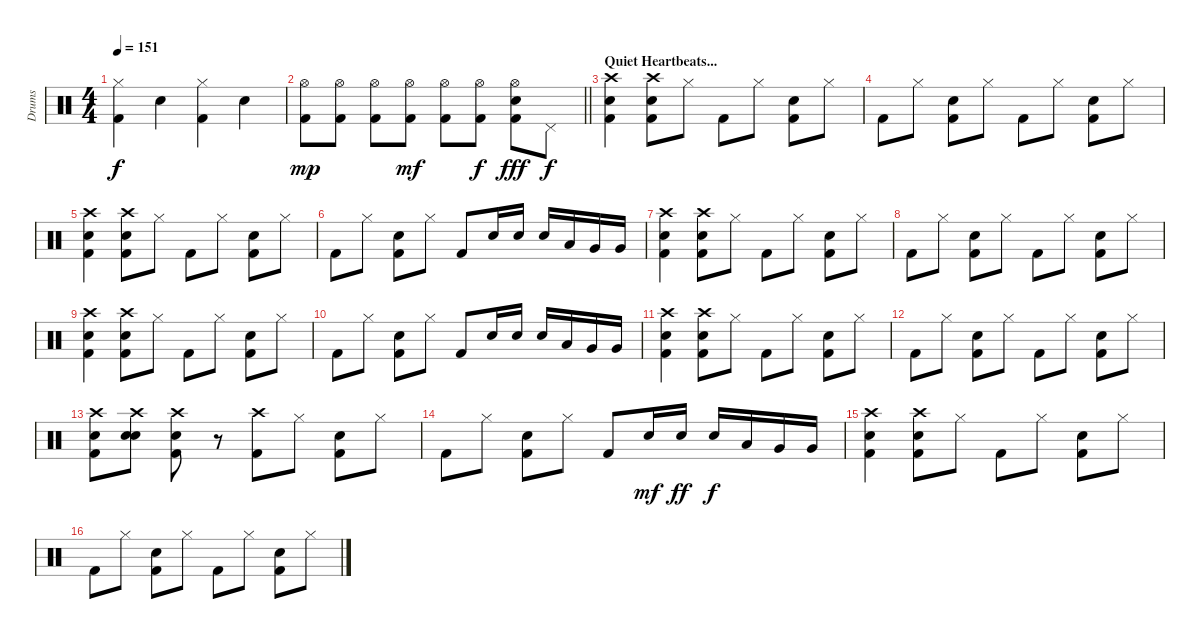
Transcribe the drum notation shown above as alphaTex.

\track ("Drums" "Drums") {instrument percussion}
\staff {score}
\articulation defaults
\ts (4 4)
\tempo 151
\clef neutral
\ks c
("Hi-Hat (closed)" "Kick (hit) 2").4{dy f} "Electric Snare (hit)".4 ("Hi-Hat (closed)" "Kick (hit) 2").4 "Electric Snare (hit)".4 |
\barLineRight lightlight
("Hi-Hat (open)" "Kick (hit) 2").8{dy mp} ("Hi-Hat (open)" "Kick (hit) 2").8 ("Hi-Hat (open)" "Kick (hit) 2").8 ("Hi-Hat (open)" "Kick (hit) 2").8{dy mf} ("Hi-Hat (open)" "Kick (hit) 2").8 ("Hi-Hat (open)" "Kick (hit) 2").8{dy f} ("Hi-Hat (open)" "Electric Snare (hit)" "Kick (hit) 2").8{dy fff} "Pedal Hi-Hat (hit)".8{dy f} |
\section ("" "Quiet Heartbeats...")
("Crash high (hit)" "Electric Snare (hit)" "Kick (hit) 2").4 ("Crash high (hit)" "Electric Snare (hit)" "Kick (hit) 2").8 "Hi-Hat (closed)".8 "Kick (hit) 2".8 "Hi-Hat (closed)".8 ("Electric Snare (hit)" "Kick (hit) 2").8 "Hi-Hat (closed)".8 |
"Kick (hit) 2".8 "Hi-Hat (closed)".8 ("Electric Snare (hit)" "Kick (hit) 2").8 "Hi-Hat (closed)".8 "Kick (hit) 2".8 "Hi-Hat (closed)".8 ("Electric Snare (hit)" "Kick (hit) 2").8 "Hi-Hat (closed)".8 |
("Crash high (hit)" "Electric Snare (hit)" "Kick (hit) 2").4 ("Crash high (hit)" "Electric Snare (hit)" "Kick (hit) 2").8 "Hi-Hat (closed)".8 "Kick (hit) 2".8 "Hi-Hat (closed)".8 ("Electric Snare (hit)" "Kick (hit) 2").8 "Hi-Hat (closed)".8 |
"Kick (hit) 2".8 "Hi-Hat (closed)".8 ("Electric Snare (hit)" "Kick (hit) 2").8 "Hi-Hat (closed)".8 "Kick (hit) 2".8 "Electric Snare (hit)".16 "Electric Snare (hit)".16 "Electric Snare (hit)".16 "Low Tom (hit)".16 "Very Low Tom (hit)".16 "Very Low Tom (hit)".16 |
("Crash high (hit)" "Electric Snare (hit)" "Kick (hit) 2").4 ("Crash high (hit)" "Electric Snare (hit)" "Kick (hit) 2").8 "Hi-Hat (closed)".8 "Kick (hit) 2".8 "Hi-Hat (closed)".8 ("Electric Snare (hit)" "Kick (hit) 2").8 "Hi-Hat (closed)".8 |
"Kick (hit) 2".8 "Hi-Hat (closed)".8 ("Electric Snare (hit)" "Kick (hit) 2").8 "Hi-Hat (closed)".8 "Kick (hit) 2".8 "Hi-Hat (closed)".8 ("Electric Snare (hit)" "Kick (hit) 2").8 "Hi-Hat (closed)".8 |
("Crash high (hit)" "Electric Snare (hit)" "Kick (hit) 2").4 ("Crash high (hit)" "Electric Snare (hit)" "Kick (hit) 2").8 "Hi-Hat (closed)".8 "Kick (hit) 2".8 "Hi-Hat (closed)".8 ("Electric Snare (hit)" "Kick (hit) 2").8 "Hi-Hat (closed)".8 |
"Kick (hit) 2".8 "Hi-Hat (closed)".8 ("Electric Snare (hit)" "Kick (hit) 2").8 "Hi-Hat (closed)".8 "Kick (hit) 2".8 "Electric Snare (hit)".16 "Electric Snare (hit)".16 "Electric Snare (hit)".16 "Low Tom (hit)".16 "Very Low Tom (hit)".16 "Very Low Tom (hit)".16 |
("Crash high (hit)" "Electric Snare (hit)" "Kick (hit) 2").4 ("Crash high (hit)" "Electric Snare (hit)" "Kick (hit) 2").8 "Hi-Hat (closed)".8 "Kick (hit) 2".8 "Hi-Hat (closed)".8 ("Electric Snare (hit)" "Kick (hit) 2").8 "Hi-Hat (closed)".8 |
"Kick (hit) 2".8 "Hi-Hat (closed)".8 ("Electric Snare (hit)" "Kick (hit) 2").8 "Hi-Hat (closed)".8 "Kick (hit) 2".8 "Hi-Hat (closed)".8 ("Electric Snare (hit)" "Kick (hit) 2").8 "Hi-Hat (closed)".8 |
("Crash high (hit)" "Electric Snare (hit)" "Kick (hit) 2").8 ("Crash high (hit)" "Electric Snare (hit)" "Electric Snare (hit)").8 ("Crash high (hit)" "Electric Snare (hit)" "Kick (hit) 2").8 r.8 ("Crash high (hit)" "Kick (hit) 2").8 "Hi-Hat (closed)".8 ("Electric Snare (hit)" "Kick (hit) 2").8 "Hi-Hat (closed)".8 |
"Kick (hit) 2".8 "Hi-Hat (closed)".8 ("Electric Snare (hit)" "Kick (hit) 2").8 "Hi-Hat (closed)".8 "Kick (hit) 2".8 "Electric Snare (hit)".16{dy mf} "Electric Snare (hit)".16{dy ff} "Electric Snare (hit)".16{dy f} "Low Tom (hit)".16 "Very Low Tom (hit)".16 "Very Low Tom (hit)".16 |
("Crash high (hit)" "Electric Snare (hit)" "Kick (hit) 2").4 ("Crash high (hit)" "Electric Snare (hit)" "Kick (hit) 2").8 "Hi-Hat (closed)".8 "Kick (hit) 2".8 "Hi-Hat (closed)".8 ("Electric Snare (hit)" "Kick (hit) 2").8 "Hi-Hat (closed)".8 |
"Kick (hit) 2".8 "Hi-Hat (closed)".8 ("Electric Snare (hit)" "Kick (hit) 2").8 "Hi-Hat (closed)".8 "Kick (hit) 2".8 "Hi-Hat (closed)".8 ("Electric Snare (hit)" "Kick (hit) 2").8 "Hi-Hat (closed)".8
